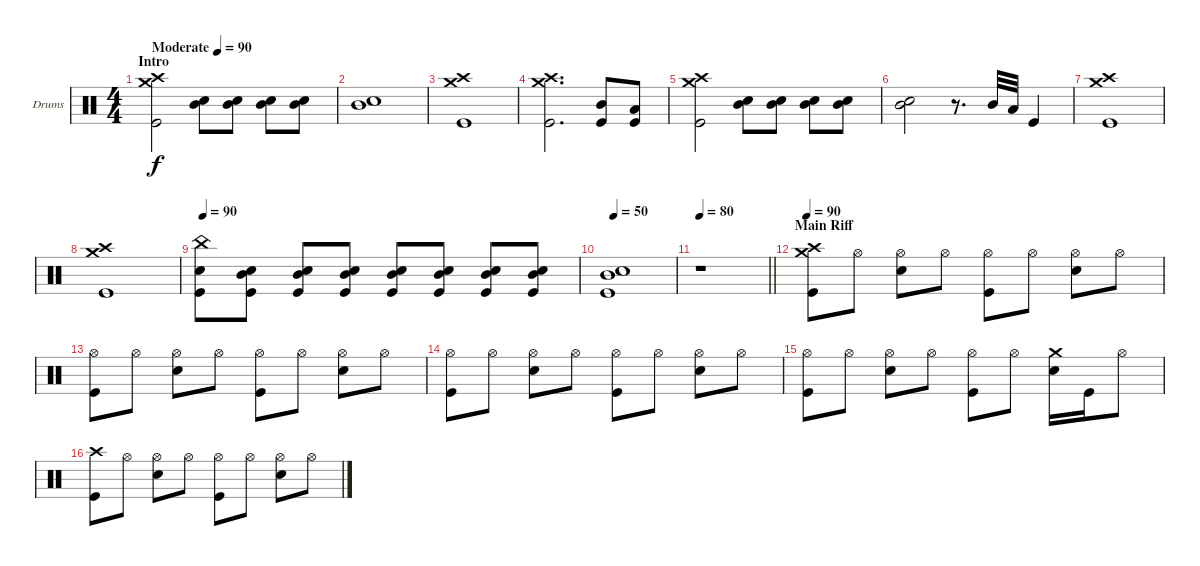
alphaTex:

\bracketExtendMode groupsimilarinstruments
\firstSystemTrackNameOrientation horizontal
\otherSystemsTrackNameOrientation horizontal
\track ("Drumkit" "Drums") {instrument percussion}
\staff {score}
\articulation defaults
\ts (4 4)
\beaming (8 2 2 2 2)
\section ("" "Intro")
\tempo (90 "Moderate")
\clef neutral
\ks c
("Crash high (hit)" "Crash medium (hit)" "Kick (hit)").2{dy f} ("Snare (hit) 2" "Mid Tom (hit)").8 ("Snare (hit) 2" "Mid Tom (hit)").8 ("Snare (hit) 2" "Mid Tom (hit)").8 ("Snare (hit) 2" "Mid Tom (hit)").8 |
("Snare (hit) 2" "Mid Tom (hit)").1 |
("Crash high (hit)" "Crash medium (hit)" "Kick (hit)").1 |
("Crash high (hit)" "Crash medium (hit)" "Kick (hit)").2{d} ("Mid Tom (hit)" "Kick (hit)").8 ("Low Tom (hit)" "Kick (hit)").8 |
("Crash high (hit)" "Crash medium (hit)" "Kick (hit)").2 ("Snare (hit) 2" "Mid Tom (hit)").8 ("Snare (hit) 2" "Mid Tom (hit)").8 ("Snare (hit) 2" "Mid Tom (hit)").8 ("Snare (hit) 2" "Mid Tom (hit)").8 |
("Snare (hit) 2" "Mid Tom (hit)").2 r.8{d} "Mid Tom (hit)".32 "Low Tom (hit)".32 "Kick (hit)".4 |
("Crash high (hit)" "Crash medium (hit)" "Kick (hit)").1 |
("Crash high (hit)" "Crash medium (hit)" "Kick (hit)").1 |
\tempo 90
("China (hit)" "Snare (hit) 2" "Kick (hit)").8 ("Snare (hit) 2" "Mid Tom (hit)" "Kick (hit)").8 ("Snare (hit) 2" "Mid Tom (hit)" "Kick (hit)").8 ("Snare (hit) 2" "Mid Tom (hit)" "Kick (hit)").8 ("Snare (hit) 2" "Mid Tom (hit)" "Kick (hit)").8 ("Snare (hit) 2" "Mid Tom (hit)" "Kick (hit)").8 ("Snare (hit) 2" "Mid Tom (hit)" "Kick (hit)").8 ("Snare (hit) 2" "Mid Tom (hit)" "Kick (hit)").8 |
\tempo 50
("Snare (hit) 2" "Mid Tom (hit)" "Kick (hit)").1 |
\tempo 80
\barLineRight lightlight
r.1 |
\section ("" "Main Riff")
\tempo 90
("Crash high (hit)" "Crash medium (hit)" "Kick (hit)").8 "Hi-Hat (open)".8 ("Hi-Hat (open)" "Snare (hit) 2").8 "Hi-Hat (open)".8 ("Hi-Hat (open)" "Kick (hit)").8 "Hi-Hat (open)".8 ("Hi-Hat (open)" "Snare (hit) 2").8 "Hi-Hat (open)".8 |
("Hi-Hat (open)" "Kick (hit)").8 "Hi-Hat (open)".8 ("Hi-Hat (open)" "Snare (hit) 2").8 "Hi-Hat (open)".8 ("Hi-Hat (open)" "Kick (hit)").8 "Hi-Hat (open)".8 ("Hi-Hat (open)" "Snare (hit) 2").8 "Hi-Hat (open)".8 |
("Hi-Hat (open)" "Kick (hit)").8 "Hi-Hat (open)".8 ("Hi-Hat (open)" "Snare (hit) 2").8 "Hi-Hat (open)".8 ("Hi-Hat (open)" "Kick (hit)").8 "Hi-Hat (open)".8 ("Hi-Hat (open)" "Snare (hit) 2").8 "Hi-Hat (open)".8 |
("Hi-Hat (open)" "Kick (hit)").8 "Hi-Hat (open)".8 ("Hi-Hat (open)" "Snare (hit) 2").8 "Hi-Hat (open)".8 ("Hi-Hat (open)" "Kick (hit)").8 "Hi-Hat (open)".8 ("Crash medium (hit)" "Snare (hit) 2").16 "Kick (hit)".16 "Hi-Hat (open)".8 |
("Crash high (hit)" "Kick (hit)").8 "Hi-Hat (open)".8 ("Hi-Hat (open)" "Snare (hit) 2").8 "Hi-Hat (open)".8 ("Hi-Hat (open)" "Kick (hit)").8 "Hi-Hat (open)".8 ("Hi-Hat (open)" "Snare (hit) 2").8 "Hi-Hat (open)".8
